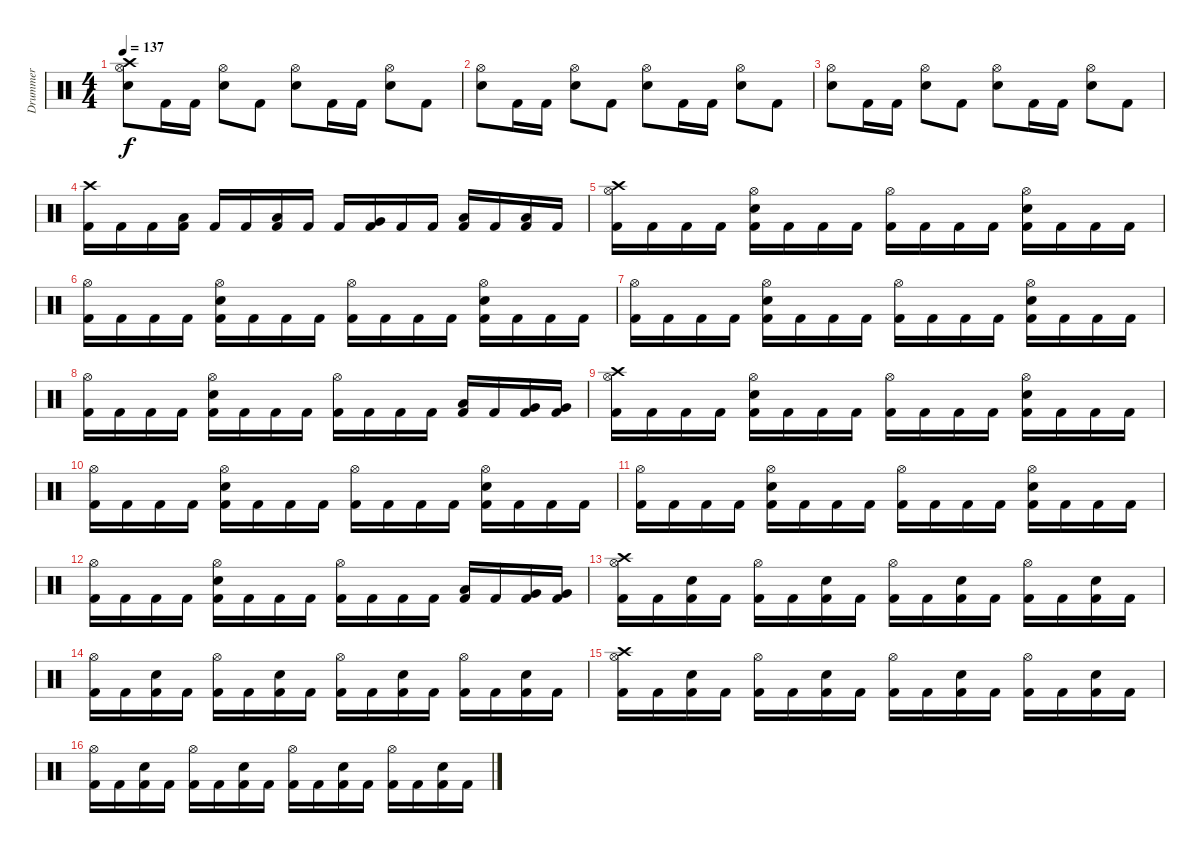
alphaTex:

\track ("Drummer" "Drummer") {instrument percussion}
\staff {score}
\articulation defaults
\ts (4 4)
\tempo 137
\clef neutral
\ks c
("Crash high (hit)" "Hi-Hat (open)" "Electric Snare (hit)").8{dy f} "Kick (hit) 2".16 "Kick (hit) 2".16 ("Hi-Hat (open)" "Electric Snare (hit)").8 "Kick (hit) 2".8 ("Hi-Hat (open)" "Electric Snare (hit)").8 "Kick (hit) 2".16 "Kick (hit) 2".16 ("Hi-Hat (open)" "Electric Snare (hit)").8 "Kick (hit) 2".8 |
("Hi-Hat (open)" "Electric Snare (hit)").8 "Kick (hit) 2".16 "Kick (hit) 2".16 ("Hi-Hat (open)" "Electric Snare (hit)").8 "Kick (hit) 2".8 ("Hi-Hat (open)" "Electric Snare (hit)").8 "Kick (hit) 2".16 "Kick (hit) 2".16 ("Hi-Hat (open)" "Electric Snare (hit)").8 "Kick (hit) 2".8 |
("Hi-Hat (open)" "Electric Snare (hit)").8 "Kick (hit) 2".16 "Kick (hit) 2".16 ("Hi-Hat (open)" "Electric Snare (hit)").8 "Kick (hit) 2".8 ("Hi-Hat (open)" "Electric Snare (hit)").8 "Kick (hit) 2".16 "Kick (hit) 2".16 ("Hi-Hat (open)" "Electric Snare (hit)").8 "Kick (hit) 2".8 |
("Kick (hit) 2" "Crash high (hit)").16 "Kick (hit) 2".16 "Kick (hit) 2".16 ("Kick (hit) 2" "Low Tom (hit)").16 "Kick (hit) 2".16 "Kick (hit) 2".16 ("Kick (hit) 2" "Low Tom (hit)").16 "Kick (hit) 2".16 "Kick (hit) 2".16 ("Kick (hit) 2" "Very Low Tom (hit)").16 "Kick (hit) 2".16 "Kick (hit) 2".16 ("Kick (hit) 2" "Low Floor Tom (hit)").16 "Kick (hit) 2".16 ("Kick (hit) 2" "Low Floor Tom (hit)").16 "Kick (hit) 2".16 |
("Crash high (hit)" "Hi-Hat (open)" "Kick (hit) 2").16 "Kick (hit) 2".16 "Kick (hit) 2".16 "Kick (hit) 2".16 ("Electric Snare (hit)" "Hi-Hat (open)" "Kick (hit) 2").16 "Kick (hit) 2".16 "Kick (hit) 2".16 "Kick (hit) 2".16 ("Hi-Hat (open)" "Kick (hit) 2").16 "Kick (hit) 2".16 "Kick (hit) 2".16 "Kick (hit) 2".16 ("Electric Snare (hit)" "Hi-Hat (open)" "Kick (hit) 2").16 "Kick (hit) 2".16 "Kick (hit) 2".16 "Kick (hit) 2".16 |
("Hi-Hat (open)" "Kick (hit) 2").16 "Kick (hit) 2".16 "Kick (hit) 2".16 "Kick (hit) 2".16 ("Electric Snare (hit)" "Hi-Hat (open)" "Kick (hit) 2").16 "Kick (hit) 2".16 "Kick (hit) 2".16 "Kick (hit) 2".16 ("Hi-Hat (open)" "Kick (hit) 2").16 "Kick (hit) 2".16 "Kick (hit) 2".16 "Kick (hit) 2".16 ("Electric Snare (hit)" "Hi-Hat (open)" "Kick (hit) 2").16 "Kick (hit) 2".16 "Kick (hit) 2".16 "Kick (hit) 2".16 |
("Hi-Hat (open)" "Kick (hit) 2").16 "Kick (hit) 2".16 "Kick (hit) 2".16 "Kick (hit) 2".16 ("Electric Snare (hit)" "Hi-Hat (open)" "Kick (hit) 2").16 "Kick (hit) 2".16 "Kick (hit) 2".16 "Kick (hit) 2".16 ("Hi-Hat (open)" "Kick (hit) 2").16 "Kick (hit) 2".16 "Kick (hit) 2".16 "Kick (hit) 2".16 ("Electric Snare (hit)" "Hi-Hat (open)" "Kick (hit) 2").16 "Kick (hit) 2".16 "Kick (hit) 2".16 "Kick (hit) 2".16 |
("Hi-Hat (open)" "Kick (hit) 2").16 "Kick (hit) 2".16 "Kick (hit) 2".16 "Kick (hit) 2".16 ("Electric Snare (hit)" "Hi-Hat (open)" "Kick (hit) 2").16 "Kick (hit) 2".16 "Kick (hit) 2".16 "Kick (hit) 2".16 ("Hi-Hat (open)" "Kick (hit) 2").16 "Kick (hit) 2".16 "Kick (hit) 2".16 "Kick (hit) 2".16 ("Low Tom (hit)" "Kick (hit) 2").16 "Kick (hit) 2".16 ("Very Low Tom (hit)" "Kick (hit) 2").16 ("Very Low Tom (hit)" "Kick (hit) 2").16 |
("Crash high (hit)" "Hi-Hat (open)" "Kick (hit) 2").16 "Kick (hit) 2".16 "Kick (hit) 2".16 "Kick (hit) 2".16 ("Electric Snare (hit)" "Hi-Hat (open)" "Kick (hit) 2").16 "Kick (hit) 2".16 "Kick (hit) 2".16 "Kick (hit) 2".16 ("Hi-Hat (open)" "Kick (hit) 2").16 "Kick (hit) 2".16 "Kick (hit) 2".16 "Kick (hit) 2".16 ("Electric Snare (hit)" "Hi-Hat (open)" "Kick (hit) 2").16 "Kick (hit) 2".16 "Kick (hit) 2".16 "Kick (hit) 2".16 |
("Hi-Hat (open)" "Kick (hit) 2").16 "Kick (hit) 2".16 "Kick (hit) 2".16 "Kick (hit) 2".16 ("Electric Snare (hit)" "Hi-Hat (open)" "Kick (hit) 2").16 "Kick (hit) 2".16 "Kick (hit) 2".16 "Kick (hit) 2".16 ("Hi-Hat (open)" "Kick (hit) 2").16 "Kick (hit) 2".16 "Kick (hit) 2".16 "Kick (hit) 2".16 ("Electric Snare (hit)" "Hi-Hat (open)" "Kick (hit) 2").16 "Kick (hit) 2".16 "Kick (hit) 2".16 "Kick (hit) 2".16 |
("Hi-Hat (open)" "Kick (hit) 2").16 "Kick (hit) 2".16 "Kick (hit) 2".16 "Kick (hit) 2".16 ("Electric Snare (hit)" "Hi-Hat (open)" "Kick (hit) 2").16 "Kick (hit) 2".16 "Kick (hit) 2".16 "Kick (hit) 2".16 ("Hi-Hat (open)" "Kick (hit) 2").16 "Kick (hit) 2".16 "Kick (hit) 2".16 "Kick (hit) 2".16 ("Electric Snare (hit)" "Hi-Hat (open)" "Kick (hit) 2").16 "Kick (hit) 2".16 "Kick (hit) 2".16 "Kick (hit) 2".16 |
("Hi-Hat (open)" "Kick (hit) 2").16 "Kick (hit) 2".16 "Kick (hit) 2".16 "Kick (hit) 2".16 ("Electric Snare (hit)" "Hi-Hat (open)" "Kick (hit) 2").16 "Kick (hit) 2".16 "Kick (hit) 2".16 "Kick (hit) 2".16 ("Hi-Hat (open)" "Kick (hit) 2").16 "Kick (hit) 2".16 "Kick (hit) 2".16 "Kick (hit) 2".16 ("Low Tom (hit)" "Kick (hit) 2").16 "Kick (hit) 2".16 ("Very Low Tom (hit)" "Kick (hit) 2").16 ("Very Low Tom (hit)" "Kick (hit) 2").16 |
("Crash high (hit)" "Hi-Hat (open)" "Kick (hit) 2").16 "Kick (hit) 2".16 ("Electric Snare (hit)" "Kick (hit) 2").16 "Kick (hit) 2".16 ("Hi-Hat (open)" "Kick (hit) 2").16 "Kick (hit) 2".16 ("Electric Snare (hit)" "Kick (hit) 2").16 "Kick (hit) 2".16 ("Hi-Hat (open)" "Kick (hit) 2").16 "Kick (hit) 2".16 ("Electric Snare (hit)" "Kick (hit) 2").16 "Kick (hit) 2".16 ("Hi-Hat (open)" "Kick (hit) 2").16 "Kick (hit) 2".16 ("Electric Snare (hit)" "Kick (hit) 2").16 "Kick (hit) 2".16 |
("Hi-Hat (open)" "Kick (hit) 2").16 "Kick (hit) 2".16 ("Electric Snare (hit)" "Kick (hit) 2").16 "Kick (hit) 2".16 ("Hi-Hat (open)" "Kick (hit) 2").16 "Kick (hit) 2".16 ("Electric Snare (hit)" "Kick (hit) 2").16 "Kick (hit) 2".16 ("Hi-Hat (open)" "Kick (hit) 2").16 "Kick (hit) 2".16 ("Electric Snare (hit)" "Kick (hit) 2").16 "Kick (hit) 2".16 ("Hi-Hat (open)" "Kick (hit) 2").16 "Kick (hit) 2".16 ("Electric Snare (hit)" "Kick (hit) 2").16 "Kick (hit) 2".16 |
("Crash high (hit)" "Hi-Hat (open)" "Kick (hit) 2").16 "Kick (hit) 2".16 ("Electric Snare (hit)" "Kick (hit) 2").16 "Kick (hit) 2".16 ("Hi-Hat (open)" "Kick (hit) 2").16 "Kick (hit) 2".16 ("Electric Snare (hit)" "Kick (hit) 2").16 "Kick (hit) 2".16 ("Hi-Hat (open)" "Kick (hit) 2").16 "Kick (hit) 2".16 ("Electric Snare (hit)" "Kick (hit) 2").16 "Kick (hit) 2".16 ("Hi-Hat (open)" "Kick (hit) 2").16 "Kick (hit) 2".16 ("Electric Snare (hit)" "Kick (hit) 2").16 "Kick (hit) 2".16 |
("Hi-Hat (open)" "Kick (hit) 2").16 "Kick (hit) 2".16 ("Electric Snare (hit)" "Kick (hit) 2").16 "Kick (hit) 2".16 ("Hi-Hat (open)" "Kick (hit) 2").16 "Kick (hit) 2".16 ("Electric Snare (hit)" "Kick (hit) 2").16 "Kick (hit) 2".16 ("Hi-Hat (open)" "Kick (hit) 2").16 "Kick (hit) 2".16 ("Electric Snare (hit)" "Kick (hit) 2").16 "Kick (hit) 2".16 ("Hi-Hat (open)" "Kick (hit) 2").16 "Kick (hit) 2".16 ("Electric Snare (hit)" "Kick (hit) 2").16 "Kick (hit) 2".16
